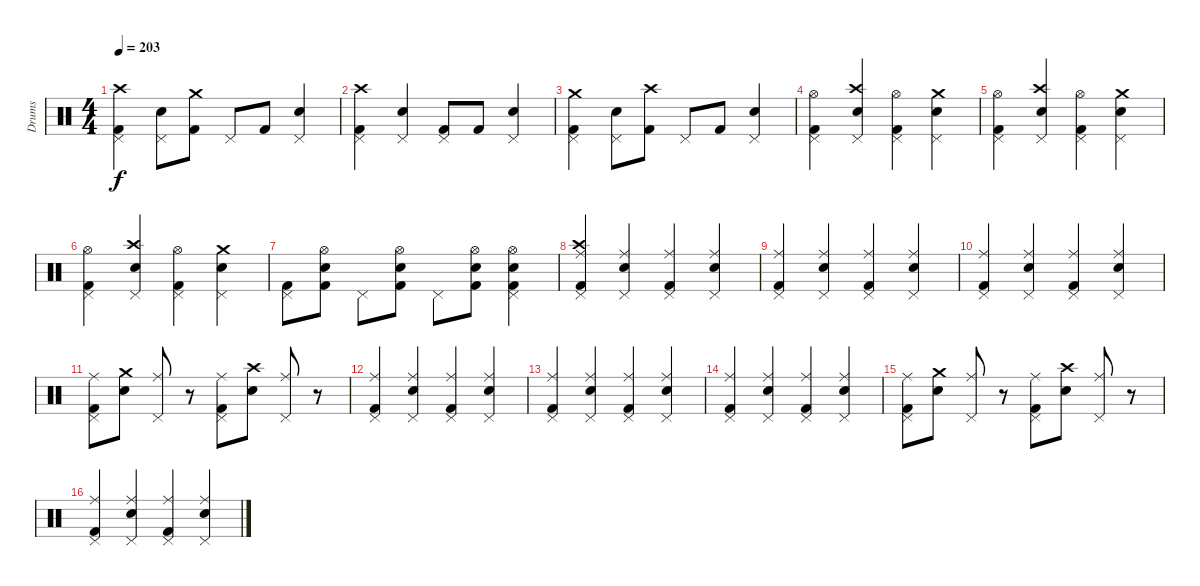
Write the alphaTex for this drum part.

\track ("Drums" "Drums") {instrument percussion}
\staff {score}
\articulation defaults
\ts (4 4)
\tempo 203
\clef neutral
\ks c
("Pedal Hi-Hat (hit)" "Kick (hit) 2" "Crash high (hit)").4{dy f} ("Pedal Hi-Hat (hit)" "Snare (hit) 2").8 ("Kick (hit) 2" "Crash medium (hit)").8 "Pedal Hi-Hat (hit)".8 "Kick (hit) 2".8 ("Pedal Hi-Hat (hit)" "Snare (hit) 2").4 |
("Pedal Hi-Hat (hit)" "Kick (hit) 2" "Crash high (hit)").4 ("Pedal Hi-Hat (hit)" "Snare (hit) 2").4 ("Pedal Hi-Hat (hit)" "Kick (hit) 2").8 "Kick (hit) 2".8 ("Pedal Hi-Hat (hit)" "Snare (hit) 2").4 |
("Pedal Hi-Hat (hit)" "Crash medium (hit)" "Kick (hit) 2").4 ("Pedal Hi-Hat (hit)" "Snare (hit) 2").8 ("Kick (hit) 2" "Crash high (hit)").8 "Pedal Hi-Hat (hit)".8 "Kick (hit) 2".8 ("Pedal Hi-Hat (hit)" "Snare (hit) 2").4 |
("Pedal Hi-Hat (hit)" "Kick (hit) 2" "Hi-Hat (open)").4 ("Pedal Hi-Hat (hit)" "Snare (hit) 2" "Crash high (hit)").4 ("Pedal Hi-Hat (hit)" "Kick (hit) 2" "Hi-Hat (open)").4 ("Pedal Hi-Hat (hit)" "Snare (hit) 2" "Crash medium (hit)").4 |
("Pedal Hi-Hat (hit)" "Kick (hit) 2" "Hi-Hat (open)").4 ("Pedal Hi-Hat (hit)" "Snare (hit) 2" "Crash high (hit)").4 ("Pedal Hi-Hat (hit)" "Kick (hit) 2" "Hi-Hat (open)").4 ("Pedal Hi-Hat (hit)" "Snare (hit) 2" "Crash medium (hit)").4 |
("Pedal Hi-Hat (hit)" "Kick (hit) 2" "Hi-Hat (open)").4 ("Pedal Hi-Hat (hit)" "Snare (hit) 2" "Crash high (hit)").4 ("Pedal Hi-Hat (hit)" "Kick (hit) 2" "Hi-Hat (open)").4 ("Pedal Hi-Hat (hit)" "Snare (hit) 2" "Crash medium (hit)").4 |
("Pedal Hi-Hat (hit)" "Kick (hit) 2").8 ("Hi-Hat (open)" "Snare (hit) 2" "Kick (hit) 2").8 "Pedal Hi-Hat (hit)".8 ("Hi-Hat (open)" "Snare (hit) 2" "Kick (hit) 2").8 "Pedal Hi-Hat (hit)".8 ("Hi-Hat (open)" "Snare (hit) 2" "Kick (hit) 2").8 ("Hi-Hat (open)" "Pedal Hi-Hat (hit)" "Snare (hit) 2" "Kick (hit) 2").4 |
("Crash high (hit)" "Ride (middle)" "Pedal Hi-Hat (hit)" "Kick (hit) 2").4 ("Ride (middle)" "Pedal Hi-Hat (hit)" "Snare (hit) 2").4 ("Ride (middle)" "Pedal Hi-Hat (hit)" "Kick (hit) 2").4 ("Ride (middle)" "Pedal Hi-Hat (hit)" "Snare (hit) 2").4 |
("Ride (middle)" "Pedal Hi-Hat (hit)" "Kick (hit) 2").4 ("Ride (middle)" "Pedal Hi-Hat (hit)" "Snare (hit) 2").4 ("Ride (middle)" "Pedal Hi-Hat (hit)" "Kick (hit) 2").4 ("Ride (middle)" "Pedal Hi-Hat (hit)" "Snare (hit) 2").4 |
("Ride (middle)" "Pedal Hi-Hat (hit)" "Kick (hit) 2").4 ("Ride (middle)" "Pedal Hi-Hat (hit)" "Snare (hit) 2").4 ("Ride (middle)" "Pedal Hi-Hat (hit)" "Kick (hit) 2").4 ("Ride (middle)" "Pedal Hi-Hat (hit)" "Snare (hit) 2").4 |
("Ride (middle)" "Pedal Hi-Hat (hit)" "Kick (hit) 2").8 ("Crash medium (hit)" "Snare (hit) 2").8 ("Ride (middle)" "Pedal Hi-Hat (hit)").8 r.8 ("Ride (middle)" "Pedal Hi-Hat (hit)" "Kick (hit) 2").8 ("Crash high (hit)" "Snare (hit) 2").8 ("Ride (middle)" "Pedal Hi-Hat (hit)").8 r.8 |
("Ride (middle)" "Pedal Hi-Hat (hit)" "Kick (hit) 2").4 ("Ride (middle)" "Pedal Hi-Hat (hit)" "Snare (hit) 2").4 ("Ride (middle)" "Pedal Hi-Hat (hit)" "Kick (hit) 2").4 ("Ride (middle)" "Pedal Hi-Hat (hit)" "Snare (hit) 2").4 |
("Ride (middle)" "Pedal Hi-Hat (hit)" "Kick (hit) 2").4 ("Ride (middle)" "Pedal Hi-Hat (hit)" "Snare (hit) 2").4 ("Ride (middle)" "Pedal Hi-Hat (hit)" "Kick (hit) 2").4 ("Ride (middle)" "Pedal Hi-Hat (hit)" "Snare (hit) 2").4 |
("Ride (middle)" "Pedal Hi-Hat (hit)" "Kick (hit) 2").4 ("Ride (middle)" "Pedal Hi-Hat (hit)" "Snare (hit) 2").4 ("Ride (middle)" "Pedal Hi-Hat (hit)" "Kick (hit) 2").4 ("Ride (middle)" "Pedal Hi-Hat (hit)" "Snare (hit) 2").4 |
("Ride (middle)" "Pedal Hi-Hat (hit)" "Kick (hit) 2").8 ("Crash medium (hit)" "Snare (hit) 2").8 ("Ride (middle)" "Pedal Hi-Hat (hit)").8 r.8 ("Ride (middle)" "Pedal Hi-Hat (hit)" "Kick (hit) 2").8 ("Crash high (hit)" "Snare (hit) 2").8 ("Ride (middle)" "Pedal Hi-Hat (hit)").8 r.8 |
("Ride (middle)" "Pedal Hi-Hat (hit)" "Kick (hit) 2").4 ("Ride (middle)" "Pedal Hi-Hat (hit)" "Snare (hit) 2").4 ("Ride (middle)" "Pedal Hi-Hat (hit)" "Kick (hit) 2").4 ("Ride (middle)" "Pedal Hi-Hat (hit)" "Snare (hit) 2").4
